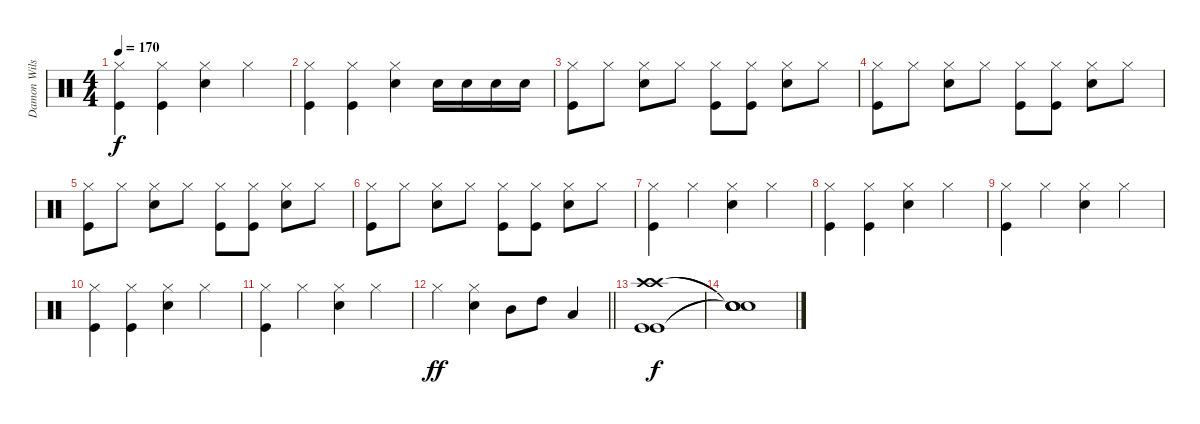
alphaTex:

\track ("Damon Wilson" "Damon Wils") {instrument percussion}
\staff {score}
\articulation defaults
\ts (4 4)
\tempo 170
\clef neutral
\ks c
("Hi-Hat (closed)" "Kick (hit)").4{dy f} ("Hi-Hat (closed)" "Kick (hit)").4 ("Hi-Hat (closed)" "Snare (hit) 2").4 "Hi-Hat (closed)".4 |
("Hi-Hat (closed)" "Kick (hit)").4 ("Hi-Hat (closed)" "Kick (hit)").4 ("Hi-Hat (closed)" "Snare (hit) 2").4 "Snare (hit) 2".16 "Snare (hit) 2".16 "Snare (hit) 2".16 "Snare (hit) 2".16 |
("Hi-Hat (closed)" "Kick (hit)").8 "Hi-Hat (closed)".8 ("Hi-Hat (closed)" "Snare (hit) 2").8 "Hi-Hat (closed)".8 ("Hi-Hat (closed)" "Kick (hit)").8 ("Hi-Hat (closed)" "Kick (hit)").8 ("Hi-Hat (closed)" "Snare (hit) 2").8 "Hi-Hat (closed)".8 |
("Hi-Hat (closed)" "Kick (hit)").8 "Hi-Hat (closed)".8 ("Hi-Hat (closed)" "Snare (hit) 2").8 "Hi-Hat (closed)".8 ("Hi-Hat (closed)" "Kick (hit)").8 ("Hi-Hat (closed)" "Kick (hit)").8 ("Hi-Hat (closed)" "Snare (hit) 2").8 "Hi-Hat (closed)".8 |
("Hi-Hat (closed)" "Kick (hit)").8 "Hi-Hat (closed)".8 ("Hi-Hat (closed)" "Snare (hit) 2").8 "Hi-Hat (closed)".8 ("Hi-Hat (closed)" "Kick (hit)").8 ("Hi-Hat (closed)" "Kick (hit)").8 ("Hi-Hat (closed)" "Snare (hit) 2").8 "Hi-Hat (closed)".8 |
("Hi-Hat (closed)" "Kick (hit)").8 "Hi-Hat (closed)".8 ("Hi-Hat (closed)" "Snare (hit) 2").8 "Hi-Hat (closed)".8 ("Hi-Hat (closed)" "Kick (hit)").8 ("Hi-Hat (closed)" "Kick (hit)").8 ("Hi-Hat (closed)" "Snare (hit) 2").8 "Hi-Hat (closed)".8 |
("Hi-Hat (closed)" "Kick (hit)").4 "Hi-Hat (closed)".4 ("Hi-Hat (closed)" "Snare (hit) 2").4 "Hi-Hat (closed)".4 |
("Hi-Hat (closed)" "Kick (hit)").4 ("Hi-Hat (closed)" "Kick (hit)").4 ("Hi-Hat (closed)" "Snare (hit) 2").4 "Hi-Hat (closed)".4 |
("Hi-Hat (closed)" "Kick (hit)").4 "Hi-Hat (closed)".4 ("Hi-Hat (closed)" "Snare (hit) 2").4 "Hi-Hat (closed)".4 |
("Hi-Hat (closed)" "Kick (hit)").4 ("Hi-Hat (closed)" "Kick (hit)").4 ("Hi-Hat (closed)" "Snare (hit) 2").4 "Hi-Hat (closed)".4 |
("Hi-Hat (closed)" "Kick (hit)").4 "Hi-Hat (closed)".4 ("Hi-Hat (closed)" "Snare (hit) 2").4 "Hi-Hat (closed)".4 |
\barLineRight lightlight "Hi-Hat (closed)".4{dy ff}
("Hi-Hat (closed)" "Snare (hit) 2").4 "Mid Tom (hit)".8 "High Tom (hit)".8 "Low Floor Tom (hit)".4 |
("Crash high (hit)" "Crash high (hit)" "Kick (hit)" "Kick (hit)").1{dy f} |
("Snare (hit)"{t} "Snare (hit)"{t} "Snare (hit)"{t} "Snare (hit)"{t}).1
